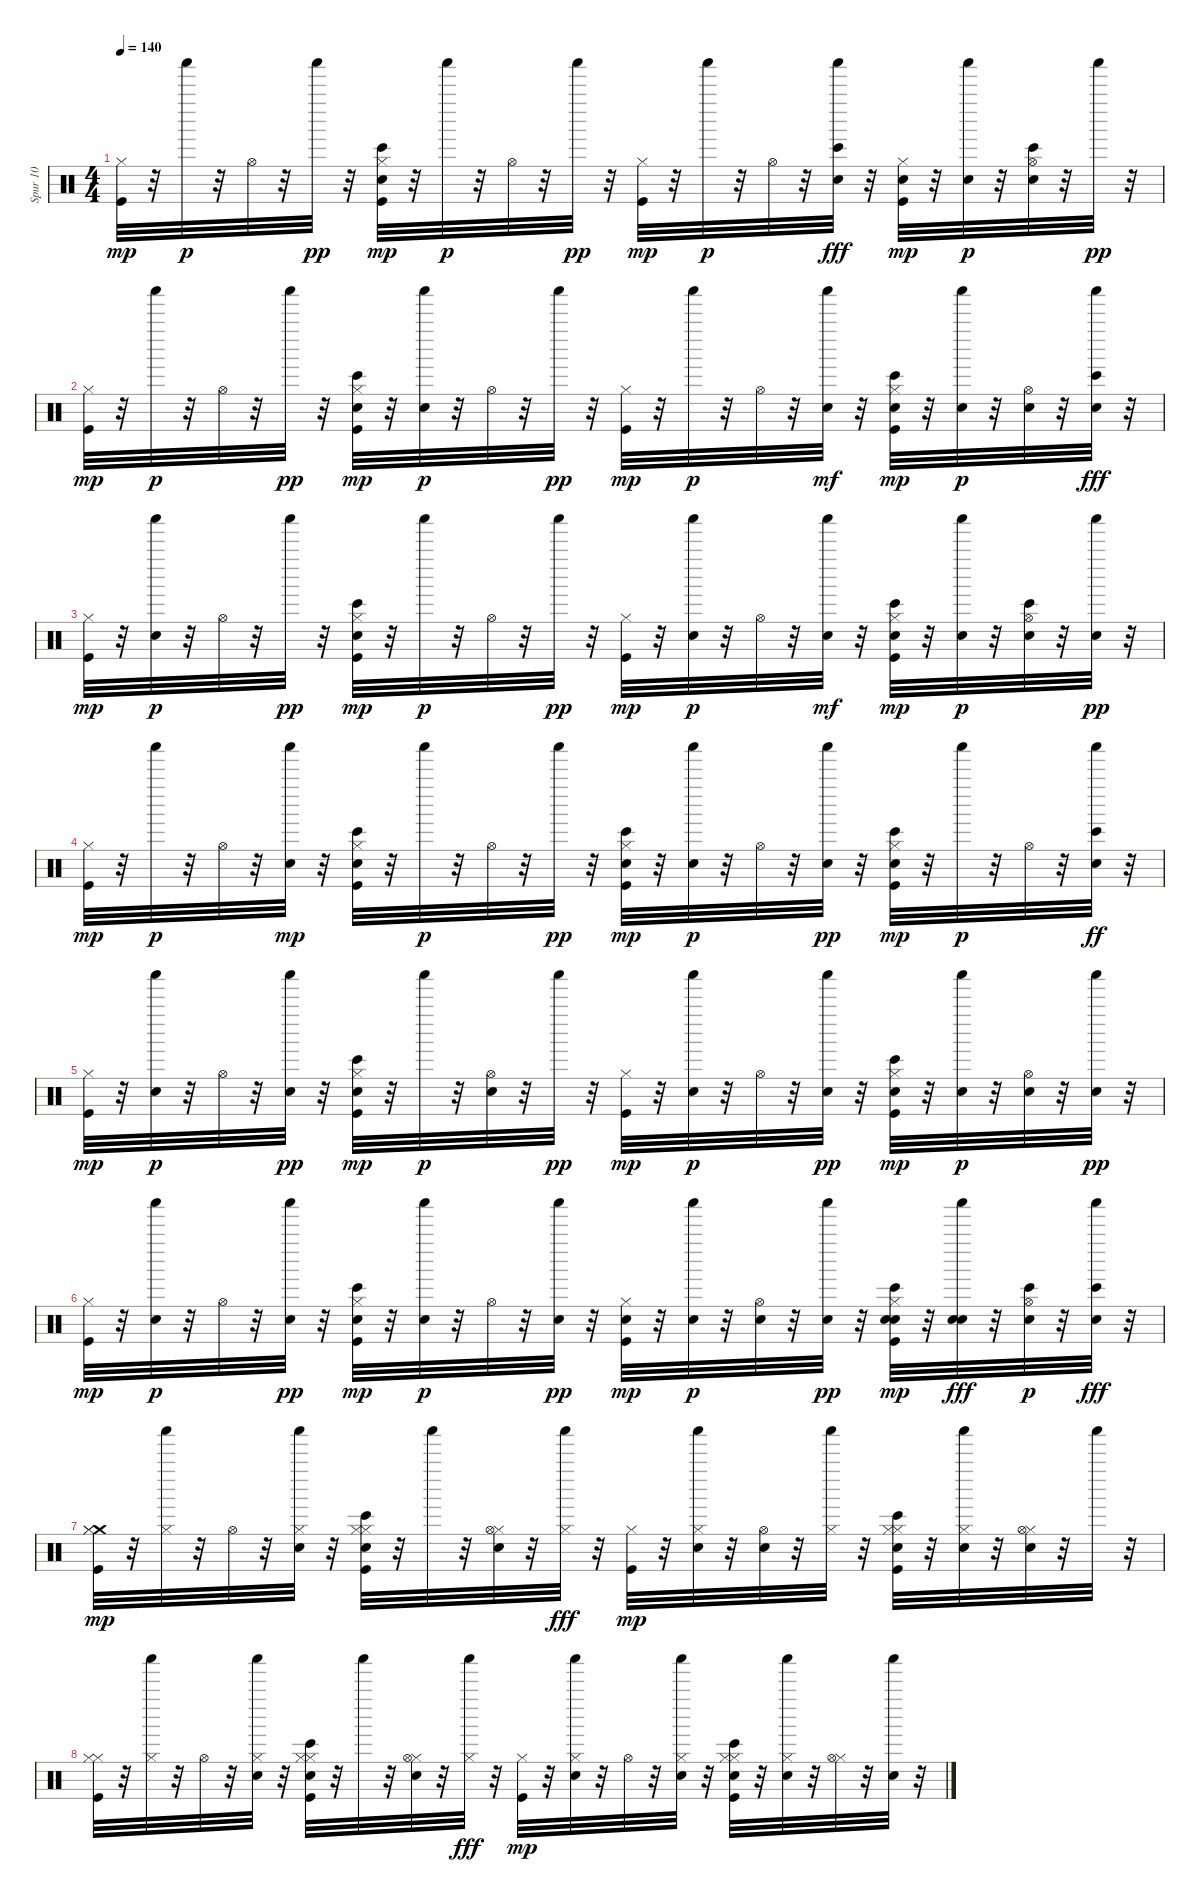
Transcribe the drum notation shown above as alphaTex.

\track ("Spur 10" "Spur 10") {instrument percussion}
\staff {score}
\articulation defaults
\ts (4 4)
\tempo 140
\clef neutral
\ks c
("Kick (hit)" "Hi-Hat (closed)").32{dy mp} r.32 "Shaker (hit)".32{dy p} r.32 "Hi-Hat (open)".32 r.32 "Shaker (hit)".32{dy pp} r.32 ("Kick (hit)" "Bongo High (hit)" "Electric Snare (hit)" "Hi-Hat (closed)").32{dy mp} r.32 "Shaker (hit)".32{dy p} r.32 "Hi-Hat (open)".32 r.32 "Shaker (hit)".32{dy pp} r.32 ("Kick (hit)" "Hi-Hat (closed)").32{dy mp} r.32 "Shaker (hit)".32{dy p} r.32 "Hi-Hat (open)".32 r.32 ("Shaker (hit)" "Bongo High (hit)" "Electric Snare (hit)").32{dy fff} r.32 ("Snare (hit) 2" "Kick (hit)" "Hi-Hat (closed)").32{dy mp} r.32 ("Snare (hit) 2" "Shaker (hit)").32{dy p} r.32 ("Bongo High (hit)" "Electric Snare (hit)" "Hi-Hat (open)").32 r.32 "Shaker (hit)".32{dy pp} r.32 |
("Kick (hit)" "Hi-Hat (closed)").32{dy mp} r.32 "Shaker (hit)".32{dy p} r.32 "Hi-Hat (open)".32 r.32 "Shaker (hit)".32{dy pp} r.32 ("Kick (hit)" "Bongo High (hit)" "Electric Snare (hit)" "Hi-Hat (closed)").32{dy mp} r.32 ("Snare (hit) 2" "Shaker (hit)").32{dy p} r.32 "Hi-Hat (open)".32 r.32 "Shaker (hit)".32{dy pp} r.32 ("Kick (hit)" "Hi-Hat (closed)").32{dy mp} r.32 "Shaker (hit)".32{dy p} r.32 "Hi-Hat (open)".32 r.32 ("Shaker (hit)" "Snare (hit) 2").32{dy mf} r.32 ("Kick (hit)" "Bongo High (hit)" "Electric Snare (hit)" "Hi-Hat (closed)").32{dy mp} r.32 ("Snare (hit) 2" "Shaker (hit)").32{dy p} r.32 ("Electric Snare (hit)" "Hi-Hat (open)").32 r.32 ("Shaker (hit)" "Bongo High (hit)" "Electric Snare (hit)").32{dy fff} r.32 |
("Kick (hit)" "Hi-Hat (closed)").32{dy mp} r.32 ("Snare (hit) 2" "Shaker (hit)").32{dy p} r.32 "Hi-Hat (open)".32 r.32 "Shaker (hit)".32{dy pp} r.32 ("Kick (hit)" "Bongo High (hit)" "Electric Snare (hit)" "Hi-Hat (closed)").32{dy mp} r.32 "Shaker (hit)".32{dy p} r.32 "Hi-Hat (open)".32 r.32 "Shaker (hit)".32{dy pp} r.32 ("Kick (hit)" "Hi-Hat (closed)").32{dy mp} r.32 ("Snare (hit) 2" "Shaker (hit)").32{dy p} r.32 "Hi-Hat (open)".32 r.32 ("Shaker (hit)" "Snare (hit) 2").32{dy mf} r.32 ("Kick (hit)" "Bongo High (hit)" "Electric Snare (hit)" "Hi-Hat (closed)").32{dy mp} r.32 ("Snare (hit) 2" "Shaker (hit)").32{dy p} r.32 ("Bongo High (hit)" "Electric Snare (hit)" "Hi-Hat (open)").32 r.32 ("Shaker (hit)" "Snare (hit) 2").32{dy pp} r.32 |
("Kick (hit)" "Hi-Hat (closed)").32{dy mp} r.32 "Shaker (hit)".32{dy p} r.32 "Hi-Hat (open)".32 r.32 ("Shaker (hit)" "Snare (hit) 2").32{dy mp} r.32 ("Kick (hit)" "Bongo High (hit)" "Electric Snare (hit)" "Hi-Hat (closed)").32 r.32 "Shaker (hit)".32{dy p} r.32 "Hi-Hat (open)".32 r.32 "Shaker (hit)".32{dy pp} r.32 ("Bongo High (hit)" "Electric Snare (hit)" "Kick (hit)" "Hi-Hat (closed)").32{dy mp} r.32 ("Snare (hit) 2" "Shaker (hit)").32{dy p} r.32 "Hi-Hat (open)".32 r.32 ("Snare (hit) 2" "Shaker (hit)").32{dy pp} r.32 ("Kick (hit)" "Bongo High (hit)" "Electric Snare (hit)" "Hi-Hat (closed)").32{dy mp} r.32 "Shaker (hit)".32{dy p} r.32 "Hi-Hat (open)".32 r.32 ("Shaker (hit)" "Bongo High (hit)" "Electric Snare (hit)").32{dy ff} r.32 |
("Kick (hit)" "Hi-Hat (closed)").32{dy mp} r.32 ("Snare (hit) 2" "Shaker (hit)").32{dy p} r.32 "Hi-Hat (open)".32 r.32 ("Snare (hit) 2" "Shaker (hit)").32{dy pp} r.32 ("Kick (hit)" "Bongo High (hit)" "Electric Snare (hit)" "Hi-Hat (closed)").32{dy mp} r.32 "Shaker (hit)".32{dy p} r.32 ("Snare (hit) 2" "Hi-Hat (open)").32 r.32 "Shaker (hit)".32{dy pp} r.32 ("Kick (hit)" "Hi-Hat (closed)").32{dy mp} r.32 ("Snare (hit) 2" "Shaker (hit)").32{dy p} r.32 "Hi-Hat (open)".32 r.32 ("Snare (hit) 2" "Shaker (hit)").32{dy pp} r.32 ("Electric Snare (hit)" "Kick (hit)" "Bongo High (hit)" "Hi-Hat (closed)").32{dy mp} r.32 ("Electric Snare (hit)" "Shaker (hit)").32{dy p} r.32 ("Snare (hit) 2" "Hi-Hat (open)").32 r.32 ("Snare (hit) 2" "Shaker (hit)").32{dy pp} r.32 |
("Kick (hit)" "Hi-Hat (closed)").32{dy mp} r.32 ("Snare (hit) 2" "Shaker (hit)").32{dy p} r.32 "Hi-Hat (open)".32 r.32 ("Snare (hit) 2" "Shaker (hit)").32{dy pp} r.32 ("Kick (hit)" "Bongo High (hit)" "Electric Snare (hit)" "Hi-Hat (closed)").32{dy mp} r.32 ("Snare (hit) 2" "Shaker (hit)").32{dy p} r.32 "Hi-Hat (open)".32 r.32 ("Snare (hit) 2" "Shaker (hit)").32{dy pp} r.32 ("Snare (hit) 2" "Kick (hit)" "Hi-Hat (closed)").32{dy mp} r.32 ("Snare (hit) 2" "Shaker (hit)").32{dy p} r.32 ("Snare (hit) 2" "Hi-Hat (open)").32 r.32 ("Snare (hit) 2" "Shaker (hit)").32{dy pp} r.32 ("Snare (hit) 2" "Kick (hit)" "Bongo High (hit)" "Electric Snare (hit)" "Hi-Hat (closed)").32{dy mp} r.32 ("Snare (hit) 2" "Shaker (hit)" "Snare (hit)").32{dy fff} r.32 ("Bongo High (hit)" "Electric Snare (hit)" "Hi-Hat (open)").32{dy p} r.32 ("Shaker (hit)" "Bongo High (hit)" "Electric Snare (hit)").32{dy fff} r.32 |
("Crash medium (hit)" "Hi-Hat (closed)" "Kick (hit)" "Hi-Hat (closed)").32{dy mp} r.32 ("Hi-Hat (closed)" "Shaker (hit)").32 r.32 "Hi-Hat (open)".32 r.32 ("Shaker (hit)" "Snare (hit) 2" "Hi-Hat (closed)").32 r.32 ("Hi-Hat (closed)" "Kick (hit)" "Bongo High (hit)" "Electric Snare (hit)" "Hi-Hat (closed)").32 r.32 "Shaker (hit)".32 r.32 ("Snare (hit) 2" "Hi-Hat (closed)" "Hi-Hat (open)").32 r.32 ("Shaker (hit)" "Hi-Hat (closed)").32{dy fff} r.32 ("Kick (hit)" "Hi-Hat (closed)").32{dy mp} r.32 ("Snare (hit) 2" "Hi-Hat (closed)" "Shaker (hit)").32 r.32 ("Snare (hit) 2" "Hi-Hat (open)").32 r.32 ("Shaker (hit)" "Hi-Hat (closed)").32 r.32 ("Hi-Hat (closed)" "Kick (hit)" "Bongo High (hit)" "Electric Snare (hit)" "Hi-Hat (closed)").32 r.32 ("Snare (hit) 2" "Hi-Hat (closed)" "Shaker (hit)").32 r.32 ("Snare (hit) 2" "Hi-Hat (closed)" "Hi-Hat (open)").32 r.32 "Shaker (hit)".32 r.32 |
("Hi-Hat (closed)" "Kick (hit)" "Hi-Hat (closed)").32 r.32 ("Hi-Hat (closed)" "Shaker (hit)").32 r.32 "Hi-Hat (open)".32 r.32 ("Shaker (hit)" "Snare (hit) 2" "Hi-Hat (closed)").32 r.32 ("Hi-Hat (closed)" "Kick (hit)" "Bongo High (hit)" "Electric Snare (hit)" "Hi-Hat (closed)").32 r.32 "Shaker (hit)".32 r.32 ("Snare (hit) 2" "Hi-Hat (closed)" "Hi-Hat (open)").32 r.32 ("Shaker (hit)" "Hi-Hat (closed)").32{dy fff} r.32 ("Kick (hit)" "Hi-Hat (closed)").32{dy mp} r.32 ("Snare (hit) 2" "Hi-Hat (closed)" "Shaker (hit)").32 r.32 "Hi-Hat (open)".32 r.32 ("Snare (hit) 2" "Shaker (hit)" "Hi-Hat (closed)").32 r.32 ("Hi-Hat (closed)" "Kick (hit)" "Bongo High (hit)" "Electric Snare (hit)" "Hi-Hat (closed)").32 r.32 ("Snare (hit) 2" "Hi-Hat (closed)" "Shaker (hit)").32 r.32 ("Hi-Hat (closed)" "Hi-Hat (open)").32 r.32 ("Snare (hit) 2" "Shaker (hit)").32 r.32
